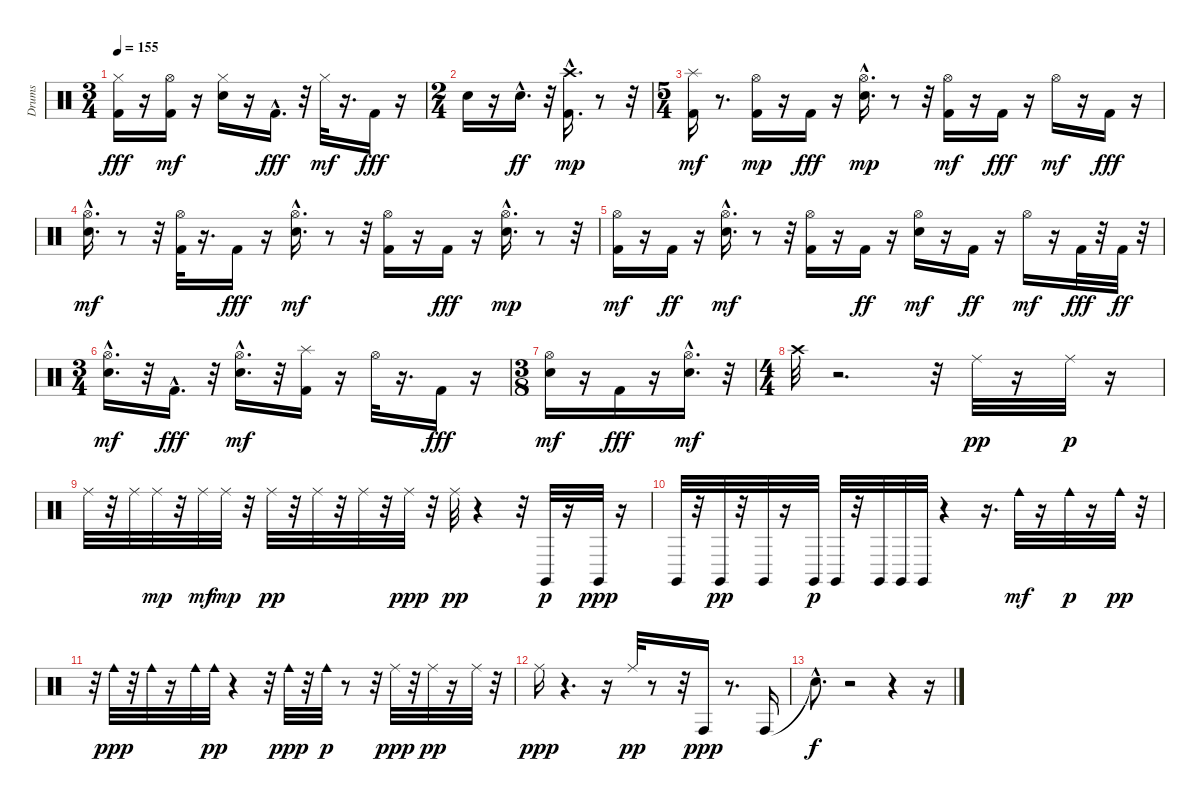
\track ("Drums" "Drums") {instrument percussion}
\staff {score}
\articulation defaults
\ts (3 4)
\tempo 155
\clef neutral
\ks c
("Kick (hit) 2" "Hi-Hat (closed)").16{dy fff} r.16 ("Kick (hit) 2" "Hi-Hat (open)").16{dy mf} r.16 ("Electric Snare (hit)" "Hi-Hat (closed)").16 r.16 "Kick (hit) 2"{hac}.16{d dy fff} r.32 "Hi-Hat (closed)".32{dy mf} r.16{d} "Kick (hit) 2".16{dy fff} r.16 |
\ts (2 4)
"Electric Snare (hit)".16 r.16 "Electric Snare (hit)"{hac}.16{d dy ff} r.32 ("Kick (hit) 2"{hac} "Crash high (hit)").16{d dy mp} r.8 r.32 |
\ts (5 4)
("Kick (hit) 2" "Splash (hit)").16{dy mf} r.8{d} ("Kick (hit) 2" "Hi-Hat (open)").16{dy mp} r.16 "Kick (hit) 2".16{dy fff} r.16 ("Electric Snare (hit)"{hac} "Hi-Hat (open)").16{d dy mp} r.8 r.32 ("Kick (hit) 2" "Hi-Hat (open)").16{dy mf} r.16 "Kick (hit) 2".16{dy fff} r.16 "Hi-Hat (open)".16{dy mf} r.16 "Kick (hit) 2".16{dy fff} r.16 |
("Electric Snare (hit)"{hac} "Hi-Hat (open)").16{d dy mf} r.8 r.32 ("Kick (hit) 2" "Hi-Hat (open)").32 r.16{d} "Kick (hit) 2".16{dy fff} r.16 ("Electric Snare (hit)"{hac} "Hi-Hat (open)").16{d dy mf} r.8 r.32 ("Kick (hit) 2" "Hi-Hat (open)").16 r.16 "Kick (hit) 2".16{dy fff} r.16 ("Electric Snare (hit)"{hac} "Hi-Hat (open)").16{d dy mp} r.8 r.32 |
("Kick (hit) 2" "Hi-Hat (open)").16{dy mf} r.16 "Kick (hit) 2".16{dy ff} r.16 ("Electric Snare (hit)"{hac} "Hi-Hat (open)").16{d dy mf} r.8 r.32 ("Kick (hit) 2" "Hi-Hat (open)").16 r.16 "Kick (hit) 2".16{dy ff} r.16 ("Electric Snare (hit)" "Hi-Hat (open)").16{dy mf} r.16 "Kick (hit) 2".16{dy ff} r.16 "Hi-Hat (open)".16{dy mf} r.16 "Kick (hit) 2".32{dy fff} r.32 "Kick (hit) 2".32{dy ff} r.32 |
\ts (3 4)
("Electric Snare (hit)"{hac} "Hi-Hat (open)").16{d dy mf} r.32 "Kick (hit) 2"{hac}.16{d dy fff} r.32 ("Electric Snare (hit)"{hac} "Hi-Hat (open)").16{d dy mf} r.32 ("Kick (hit) 2" "Splash (hit)").16 r.16 "Hi-Hat (open)".32 r.16{d} "Kick (hit) 2".16{dy fff} r.16 |
\ts (3 8)
("Electric Snare (hit)" "Hi-Hat (open)").16{dy mf} r.16 "Kick (hit) 2".16{dy fff} r.16 ("Electric Snare (hit)"{hac} "Hi-Hat (open)"{hac}).16{d dy mf} r.32 |
\ts (4 4)
"Crash high (hit)".32 r.2{d} r.32 "Ride (middle)".32{dy pp} r.16 "Ride (middle)".32{dy p} r.16 |
"Ride (middle)".32 r.32 "Ride (middle)".32 "Ride (middle)".32{dy mp} r.32 "Ride (middle)".32{dy mf} "Ride (middle)".32{dy mp} r.32 "Ride (middle)".32{dy pp} r.32 "Ride (middle)".32 r.32 "Ride (middle)".32 r.32 "Ride (middle)".32{dy ppp} r.32 "Ride (middle)".32{dy pp} r.4 r.32 "Claves (hit)".32{dy p} r.16 "Claves (hit)".32{dy ppp} r.16 |
"Claves (hit)".32 r.32 "Claves (hit)".32{dy pp} r.32 "Claves (hit)".32 r.16 "Claves (hit)".32{dy p} "Claves (hit)".32 r.32 "Claves (hit)".32 "Claves (hit)".32 "Claves (hit)".32 r.4 r.16{d} "Cowbell medium (hit)".32{dy mf} r.16 "Cowbell medium (hit)".32{dy p} r.16 "Cowbell medium (hit)".32{dy pp} r.32 |
r.32 "Cowbell medium (hit)".32{dy ppp} r.32 "Cowbell medium (hit)".32 r.16 "Cowbell medium (hit)".32 "Cowbell medium (hit)".32{dy pp} r.4 r.32 "Cowbell medium (hit)".32{dy ppp} r.32 "Cowbell medium (hit)".32{dy p} r.8 r.32 "Ride (middle)".32{dy ppp} r.32 "Ride (middle)".32{dy pp} r.16 "Ride (middle)".32 r.32 |
"Ride (middle)".16{dy ppp} r.4{d} r.16 "Ride (middle)".32{dy pp} r.8 r.32 "Conga high (hit)".16{dy ppp} r.8{d} "Conga high (hit)".16 |
"Snare (hit)"{hac t}.8{d dy f} r.2 r.4 r.16
